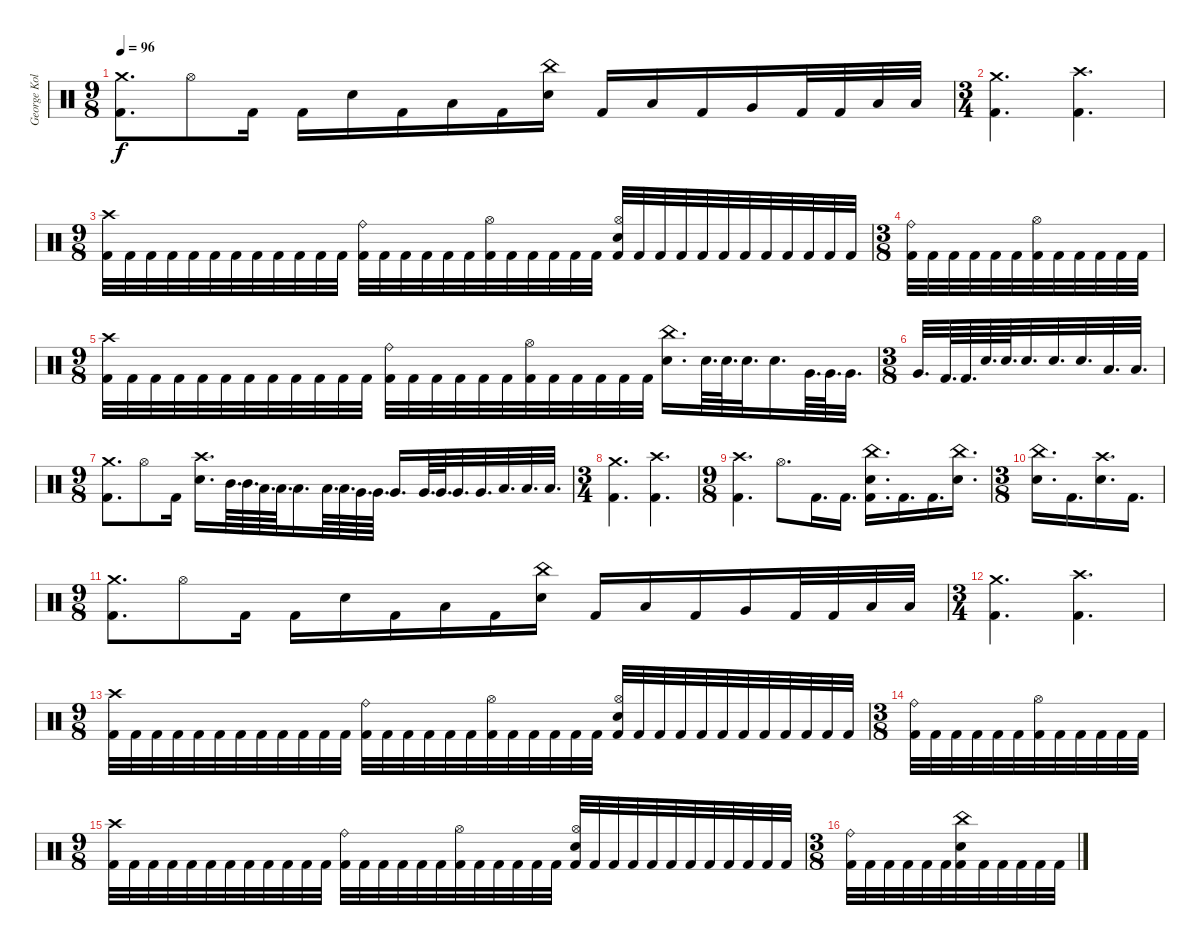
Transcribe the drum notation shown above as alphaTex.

\track ("George Kollias" "George Kol") {instrument percussion}
\staff {score}
\articulation defaults
\ts (9 8)
\tempo 96
\clef neutral
\ks c
("Crash medium (hit)" "Kick (hit) 2").8{d dy f} "Hi-Hat (open)".8 "Kick (hit) 2".16 "Kick (hit) 2".16 "Electric Snare (hit)".16 "Kick (hit) 2".16 "Low Tom (hit)".16 "Kick (hit) 2".16 ("China (hit)" "Electric Snare (hit)").16 "Kick (hit) 2".16 "Low Tom (hit)".16 "Kick (hit) 2".16 "Very Low Tom (hit)".16 "Kick (hit) 2".32 "Kick (hit) 2".32 "Low Floor Tom (hit)".32 "Low Floor Tom (hit)".32 |
\ts (3 4)
("Crash medium (hit)" "Kick (hit) 2").4{d} ("Crash high (hit)" "Kick (hit) 2").4{d} |
\ts (9 8)
("Crash high (hit)" "Kick (hit) 2").32 "Kick (hit) 2".32 "Kick (hit) 2".32 "Kick (hit) 2".32 "Kick (hit) 2".32 "Kick (hit) 2".32 "Kick (hit) 2".32 "Kick (hit) 2".32 "Kick (hit) 2".32 "Kick (hit) 2".32 "Kick (hit) 2".32 "Kick (hit) 2".32 ("Ride (bell)" "Kick (hit) 2").32 "Kick (hit) 2".32 "Kick (hit) 2".32 "Kick (hit) 2".32 "Kick (hit) 2".32 "Kick (hit) 2".32 ("Hi-Hat (open)" "Kick (hit) 2").32 "Kick (hit) 2".32 "Kick (hit) 2".32 "Kick (hit) 2".32 "Kick (hit) 2".32 "Kick (hit) 2".32 ("Hi-Hat (open)" "Electric Snare (hit)" "Kick (hit) 2").32 "Kick (hit) 2".32 "Kick (hit) 2".32 "Kick (hit) 2".32 "Kick (hit) 2".32 "Kick (hit) 2".32 "Kick (hit) 2".32 "Kick (hit) 2".32 "Kick (hit) 2".32 "Kick (hit) 2".32 "Kick (hit) 2".32 "Kick (hit) 2".32 |
\ts (3 8)
("Ride (bell)" "Kick (hit) 2").32 "Kick (hit) 2".32 "Kick (hit) 2".32 "Kick (hit) 2".32 "Kick (hit) 2".32 "Kick (hit) 2".32 ("Hi-Hat (open)" "Kick (hit) 2").32 "Kick (hit) 2".32 "Kick (hit) 2".32 "Kick (hit) 2".32 "Kick (hit) 2".32 "Kick (hit) 2".32 |
\ts (9 8)
("Crash high (hit)" "Kick (hit) 2").32 "Kick (hit) 2".32 "Kick (hit) 2".32 "Kick (hit) 2".32 "Kick (hit) 2".32 "Kick (hit) 2".32 "Kick (hit) 2".32 "Kick (hit) 2".32 "Kick (hit) 2".32 "Kick (hit) 2".32 "Kick (hit) 2".32 "Kick (hit) 2".32 ("Ride (bell)" "Kick (hit) 2").32 "Kick (hit) 2".32 "Kick (hit) 2".32 "Kick (hit) 2".32 "Kick (hit) 2".32 "Kick (hit) 2".32 ("Hi-Hat (open)" "Kick (hit) 2").32 "Kick (hit) 2".32 "Kick (hit) 2".32 "Kick (hit) 2".32 "Kick (hit) 2".32 "Kick (hit) 2".32 ("China (hit)" "Electric Snare (hit)").16{d} "Electric Snare (hit)".64{d} "Electric Snare (hit)".64{d} "Electric Snare (hit)".32{d} "Electric Snare (hit)".16{d} "Very Low Tom (hit)".64{d} "Very Low Tom (hit)".64{d} "Very Low Tom (hit)".32{d} |
\ts (3 8)
"Very Low Tom (hit)".32{d} "Kick (hit) 2".64{d} "Kick (hit) 2".64{d} "Electric Snare (hit)".64{d} "Electric Snare (hit)".64{d} "Electric Snare (hit)".32{d} "Electric Snare (hit)".32{d} "Electric Snare (hit)".32{d} "Low Tom (hit)".32{d} "Low Tom (hit)".32{d} |
\ts (9 8)
("Crash medium (hit)" "Kick (hit) 2").8{d} "Hi-Hat (open)".8 "Kick (hit) 2".16 ("Crash high (hit)" "Electric Snare (hit)").16{d} "Mid Tom (hit)".64{d} "Mid Tom (hit)".64{d} "Low Tom (hit)".64{d} "Low Tom (hit)".64{d} "Low Tom (hit)".16{d} "Low Tom (hit)".64{d} "Low Tom (hit)".64{d} "Very Low Tom (hit)".64{d} "Very Low Tom (hit)".64{d} "Very Low Tom (hit)".16{d} "Very Low Tom (hit)".64{d} "Very Low Tom (hit)".64{d} "Very Low Tom (hit)".32{d} "Very Low Tom (hit)".32{d} "Low Floor Tom (hit)".32{d} "Low Floor Tom (hit)".32{d} "Low Floor Tom (hit)".32{d} |
\ts (3 4)
("Crash medium (hit)" "Kick (hit) 2").4{d} ("Crash high (hit)" "Kick (hit) 2").4{d} |
\ts (9 8)
("Crash high (hit)" "Kick (hit) 2").4{d} "Hi-Hat (open)".8{d} "Kick (hit) 2".16{d} "Kick (hit) 2".16{d} ("China (hit)" "Electric Snare (hit)" "Kick (hit) 2").16{d} "Kick (hit) 2".16{d} "Kick (hit) 2".16{d} ("China (hit)" "Electric Snare (hit)").16{d} |
\ts (3 8)
("China (hit)" "Electric Snare (hit)").16{d} "Kick (hit) 2".16{d} ("Crash high (hit)" "Electric Snare (hit)").16{d} "Kick (hit) 2".16{d} |
\ts (9 8)
("Crash medium (hit)" "Kick (hit) 2").8{d} "Hi-Hat (open)".8 "Kick (hit) 2".16 "Kick (hit) 2".16 "Electric Snare (hit)".16 "Kick (hit) 2".16 "Low Tom (hit)".16 "Kick (hit) 2".16 ("China (hit)" "Electric Snare (hit)").16 "Kick (hit) 2".16 "Low Tom (hit)".16 "Kick (hit) 2".16 "Very Low Tom (hit)".16 "Kick (hit) 2".32 "Kick (hit) 2".32 "Low Floor Tom (hit)".32 "Low Floor Tom (hit)".32 |
\ts (3 4)
("Crash medium (hit)" "Kick (hit) 2").4{d} ("Crash high (hit)" "Kick (hit) 2").4{d} |
\ts (9 8)
("Crash high (hit)" "Kick (hit) 2").32 "Kick (hit) 2".32 "Kick (hit) 2".32 "Kick (hit) 2".32 "Kick (hit) 2".32 "Kick (hit) 2".32 "Kick (hit) 2".32 "Kick (hit) 2".32 "Kick (hit) 2".32 "Kick (hit) 2".32 "Kick (hit) 2".32 "Kick (hit) 2".32 ("Ride (bell)" "Kick (hit) 2").32 "Kick (hit) 2".32 "Kick (hit) 2".32 "Kick (hit) 2".32 "Kick (hit) 2".32 "Kick (hit) 2".32 ("Hi-Hat (open)" "Kick (hit) 2").32 "Kick (hit) 2".32 "Kick (hit) 2".32 "Kick (hit) 2".32 "Kick (hit) 2".32 "Kick (hit) 2".32 ("Hi-Hat (open)" "Electric Snare (hit)" "Kick (hit) 2").32 "Kick (hit) 2".32 "Kick (hit) 2".32 "Kick (hit) 2".32 "Kick (hit) 2".32 "Kick (hit) 2".32 "Kick (hit) 2".32 "Kick (hit) 2".32 "Kick (hit) 2".32 "Kick (hit) 2".32 "Kick (hit) 2".32 "Kick (hit) 2".32 |
\ts (3 8)
("Ride (bell)" "Kick (hit) 2").32 "Kick (hit) 2".32 "Kick (hit) 2".32 "Kick (hit) 2".32 "Kick (hit) 2".32 "Kick (hit) 2".32 ("Hi-Hat (open)" "Kick (hit) 2").32 "Kick (hit) 2".32 "Kick (hit) 2".32 "Kick (hit) 2".32 "Kick (hit) 2".32 "Kick (hit) 2".32 |
\ts (9 8)
("Crash high (hit)" "Kick (hit) 2").32 "Kick (hit) 2".32 "Kick (hit) 2".32 "Kick (hit) 2".32 "Kick (hit) 2".32 "Kick (hit) 2".32 "Kick (hit) 2".32 "Kick (hit) 2".32 "Kick (hit) 2".32 "Kick (hit) 2".32 "Kick (hit) 2".32 "Kick (hit) 2".32 ("Ride (bell)" "Kick (hit) 2").32 "Kick (hit) 2".32 "Kick (hit) 2".32 "Kick (hit) 2".32 "Kick (hit) 2".32 "Kick (hit) 2".32 ("Hi-Hat (open)" "Kick (hit) 2").32 "Kick (hit) 2".32 "Kick (hit) 2".32 "Kick (hit) 2".32 "Kick (hit) 2".32 "Kick (hit) 2".32 ("Hi-Hat (open)" "Electric Snare (hit)" "Kick (hit) 2").32 "Kick (hit) 2".32 "Kick (hit) 2".32 "Kick (hit) 2".32 "Kick (hit) 2".32 "Kick (hit) 2".32 "Kick (hit) 2".32 "Kick (hit) 2".32 "Kick (hit) 2".32 "Kick (hit) 2".32 "Kick (hit) 2".32 "Kick (hit) 2".32 |
\ts (3 8)
("Ride (bell)" "Kick (hit) 2").32 "Kick (hit) 2".32 "Kick (hit) 2".32 "Kick (hit) 2".32 "Kick (hit) 2".32 "Kick (hit) 2".32 ("China (hit)" "Electric Snare (hit)" "Kick (hit) 2").32 "Kick (hit) 2".32 "Kick (hit) 2".32 "Kick (hit) 2".32 "Kick (hit) 2".32 "Kick (hit) 2".32
